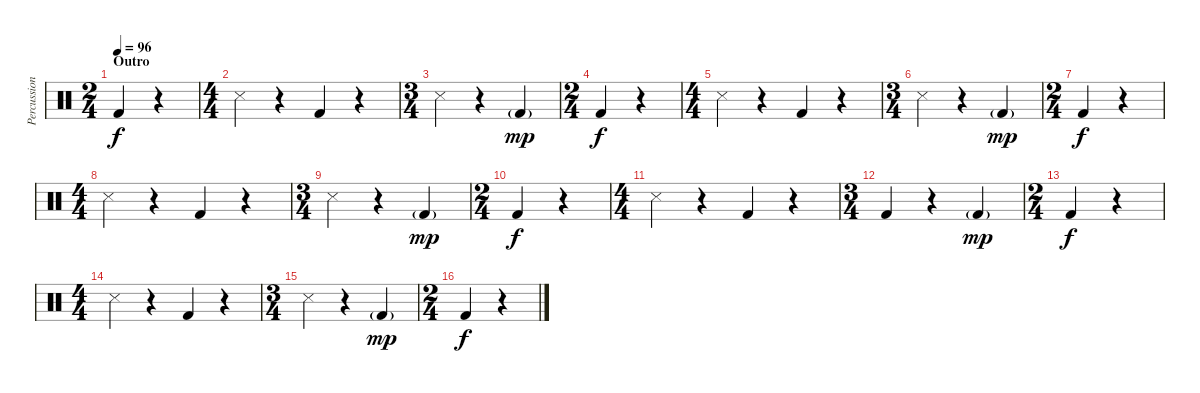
\track ("Percussion" "Percussion") {instrument percussion}
\staff {score}
\articulation defaults
\ts (2 4)
\section ("" "Outro")
\tempo 96
\clef neutral
\ks c "Kick (hit) 2".4{dy f}
r.4 |
\ts (4 4)
"Snare (side stick) 3".4 r.4 "Kick (hit) 2".4 r.4 |
\ts (3 4)
"Snare (side stick) 3".4 r.4 "Kick (hit) 2"{g}.4{dy mp} |
\ts (2 4)
"Kick (hit) 2".4{dy f} r.4 |
\ts (4 4)
"Snare (side stick) 3".4 r.4 "Kick (hit) 2".4 r.4 |
\ts (3 4)
"Snare (side stick) 3".4 r.4 "Kick (hit) 2"{g}.4{dy mp} |
\ts (2 4)
"Kick (hit) 2".4{dy f} r.4 |
\ts (4 4)
"Snare (side stick) 3".4 r.4 "Kick (hit) 2".4 r.4 |
\ts (3 4)
"Snare (side stick) 3".4 r.4 "Kick (hit) 2"{g}.4{dy mp} |
\ts (2 4)
"Kick (hit) 2".4{dy f} r.4 |
\ts (4 4)
"Snare (side stick) 3".4 r.4 "Kick (hit) 2".4 r.4 |
\ts (3 4)
"Kick (hit) 2".4 r.4 "Kick (hit) 2"{g}.4{dy mp} |
\ts (2 4)
"Kick (hit) 2".4{dy f} r.4 |
\ts (4 4)
"Snare (side stick) 3".4 r.4 "Kick (hit) 2".4 r.4 |
\ts (3 4)
"Snare (side stick) 3".4 r.4 "Kick (hit) 2"{g}.4{dy mp} |
\ts (2 4)
"Kick (hit) 2".4{dy f} r.4
